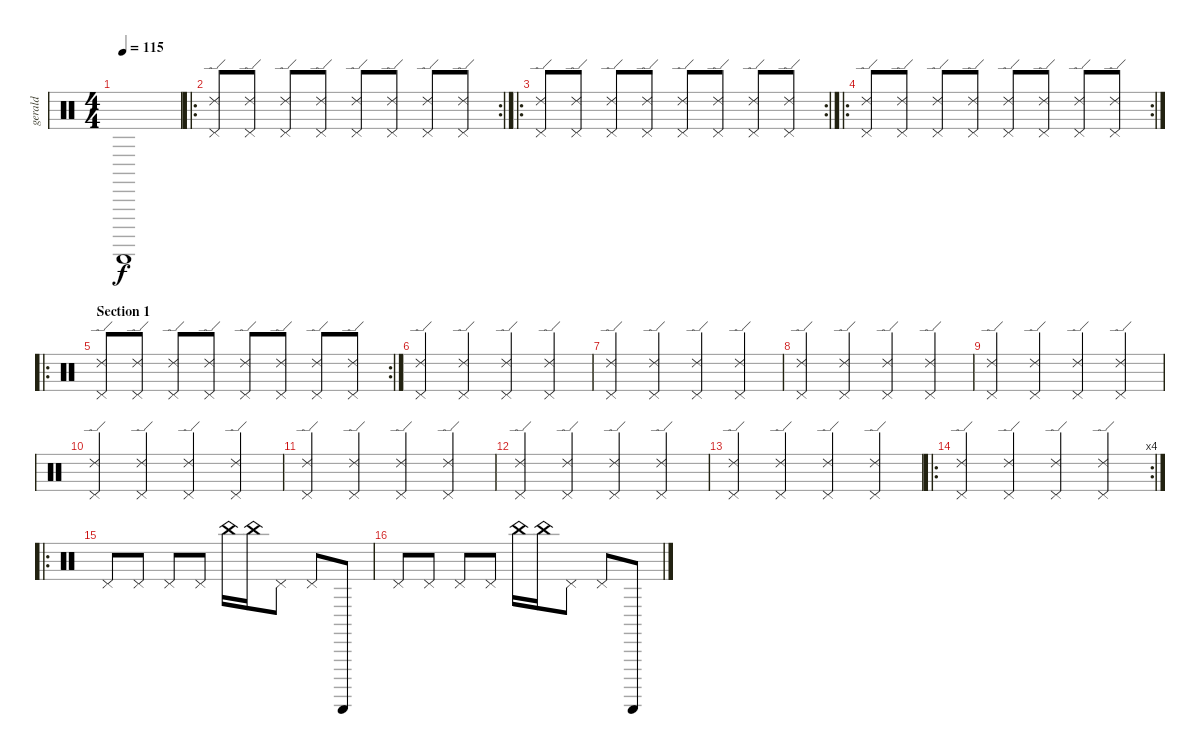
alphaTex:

\track ("gerald" "gerald") {instrument percussion}
\staff {score}
\articulation defaults
\ts (4 4)
\tempo 115
\clef neutral
\ks c "Guiro (scrap-return)".1{dy f}
|
\ro
\rc 2
("Ride (edge) 2" "Pedal Hi-Hat (hit)").8 ("Ride (edge) 2" "Pedal Hi-Hat (hit)").8 ("Ride (edge) 2" "Pedal Hi-Hat (hit)").8 ("Ride (edge) 2" "Pedal Hi-Hat (hit)").8 ("Ride (edge) 2" "Pedal Hi-Hat (hit)").8 ("Ride (edge) 2" "Pedal Hi-Hat (hit)").8 ("Ride (edge) 2" "Pedal Hi-Hat (hit)").8 ("Ride (edge) 2" "Pedal Hi-Hat (hit)").8 |
\ro
\rc 2
("Ride (edge) 2" "Pedal Hi-Hat (hit)").8 ("Ride (edge) 2" "Pedal Hi-Hat (hit)").8 ("Ride (edge) 2" "Pedal Hi-Hat (hit)").8 ("Ride (edge) 2" "Pedal Hi-Hat (hit)").8 ("Ride (edge) 2" "Pedal Hi-Hat (hit)").8 ("Ride (edge) 2" "Pedal Hi-Hat (hit)").8 ("Ride (edge) 2" "Pedal Hi-Hat (hit)").8 ("Ride (edge) 2" "Pedal Hi-Hat (hit)").8 |
\ro
\rc 2
("Ride (edge) 2" "Pedal Hi-Hat (hit)").8 ("Ride (edge) 2" "Pedal Hi-Hat (hit)").8 ("Ride (edge) 2" "Pedal Hi-Hat (hit)").8 ("Ride (edge) 2" "Pedal Hi-Hat (hit)").8 ("Ride (edge) 2" "Pedal Hi-Hat (hit)").8 ("Ride (edge) 2" "Pedal Hi-Hat (hit)").8 ("Ride (edge) 2" "Pedal Hi-Hat (hit)").8 ("Ride (edge) 2" "Pedal Hi-Hat (hit)").8 |
\ro
\rc 2
\section ("" "Section 1")
("Ride (edge) 2" "Pedal Hi-Hat (hit)").8 ("Ride (edge) 2" "Pedal Hi-Hat (hit)").8 ("Ride (edge) 2" "Pedal Hi-Hat (hit)").8 ("Ride (edge) 2" "Pedal Hi-Hat (hit)").8 ("Ride (edge) 2" "Pedal Hi-Hat (hit)").8 ("Ride (edge) 2" "Pedal Hi-Hat (hit)").8 ("Ride (edge) 2" "Pedal Hi-Hat (hit)").8 ("Ride (edge) 2" "Pedal Hi-Hat (hit)").8 |
("Ride (edge) 2" "Pedal Hi-Hat (hit)").4 ("Ride (edge) 2" "Pedal Hi-Hat (hit)").4 ("Ride (edge) 2" "Pedal Hi-Hat (hit)").4 ("Ride (edge) 2" "Pedal Hi-Hat (hit)").4 |
("Ride (edge) 2" "Pedal Hi-Hat (hit)").4 ("Ride (edge) 2" "Pedal Hi-Hat (hit)").4 ("Ride (edge) 2" "Pedal Hi-Hat (hit)").4 ("Ride (edge) 2" "Pedal Hi-Hat (hit)").4 |
("Ride (edge) 2" "Pedal Hi-Hat (hit)").4 ("Ride (edge) 2" "Pedal Hi-Hat (hit)").4 ("Ride (edge) 2" "Pedal Hi-Hat (hit)").4 ("Ride (edge) 2" "Pedal Hi-Hat (hit)").4 |
("Ride (edge) 2" "Pedal Hi-Hat (hit)").4 ("Ride (edge) 2" "Pedal Hi-Hat (hit)").4 ("Ride (edge) 2" "Pedal Hi-Hat (hit)").4 ("Ride (edge) 2" "Pedal Hi-Hat (hit)").4 |
("Ride (edge) 2" "Pedal Hi-Hat (hit)").4 ("Ride (edge) 2" "Pedal Hi-Hat (hit)").4 ("Ride (edge) 2" "Pedal Hi-Hat (hit)").4 ("Ride (edge) 2" "Pedal Hi-Hat (hit)").4 |
("Ride (edge) 2" "Pedal Hi-Hat (hit)").4 ("Ride (edge) 2" "Pedal Hi-Hat (hit)").4 ("Ride (edge) 2" "Pedal Hi-Hat (hit)").4 ("Ride (edge) 2" "Pedal Hi-Hat (hit)").4 |
("Ride (edge) 2" "Pedal Hi-Hat (hit)").4 ("Ride (edge) 2" "Pedal Hi-Hat (hit)").4 ("Ride (edge) 2" "Pedal Hi-Hat (hit)").4 ("Ride (edge) 2" "Pedal Hi-Hat (hit)").4 |
("Ride (edge) 2" "Pedal Hi-Hat (hit)").4 ("Ride (edge) 2" "Pedal Hi-Hat (hit)").4 ("Ride (edge) 2" "Pedal Hi-Hat (hit)").4 ("Ride (edge) 2" "Pedal Hi-Hat (hit)").4 |
\ro
\rc 4
("Ride (edge) 2" "Pedal Hi-Hat (hit)").4 ("Ride (edge) 2" "Pedal Hi-Hat (hit)").4 ("Ride (edge) 2" "Pedal Hi-Hat (hit)").4 ("Ride (edge) 2" "Pedal Hi-Hat (hit)").4 |
\ro "Pedal Hi-Hat (hit)".8 "Pedal Hi-Hat (hit)".8 "Pedal Hi-Hat (hit)".8 "Pedal Hi-Hat (hit)".8 "China (hit)".16 "China (hit)".16 "Pedal Hi-Hat (hit)".8 "Pedal Hi-Hat (hit)".8 "Guiro (scrap-return)".8
|
"Pedal Hi-Hat (hit)".8 "Pedal Hi-Hat (hit)".8 "Pedal Hi-Hat (hit)".8 "Pedal Hi-Hat (hit)".8 "China (hit)".16 "China (hit)".16 "Pedal Hi-Hat (hit)".8 "Pedal Hi-Hat (hit)".8 "Guiro (scrap-return)".8
